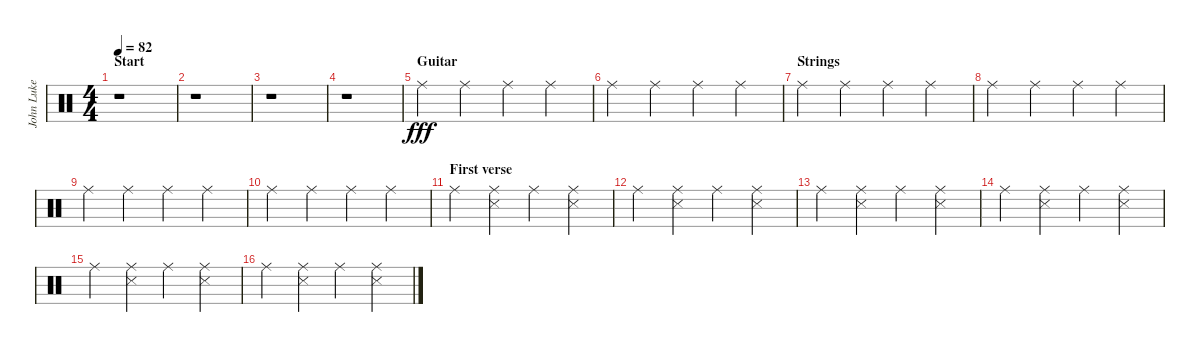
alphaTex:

\track ("John Luke (Drums)" "John Luke ") {instrument percussion}
\staff {score}
\articulation defaults
\ts (4 4)
\section ("" "Start")
\tempo 82
\clef neutral
\ks c
r.1{dy fff} |
r.1 |
r.1 |
r.1 |
\section ("" "Guitar")
"Ride (middle)".4 "Ride (middle)".4 "Ride (middle)".4 "Ride (middle)".4 |
"Ride (middle)".4 "Ride (middle)".4 "Ride (middle)".4 "Ride (middle)".4 |
\section ("" "Strings")
"Ride (middle)".4 "Ride (middle)".4 "Ride (middle)".4 "Ride (middle)".4 |
"Ride (middle)".4 "Ride (middle)".4 "Ride (middle)".4 "Ride (middle)".4 |
"Ride (middle)".4 "Ride (middle)".4 "Ride (middle)".4 "Ride (middle)".4 |
"Ride (middle)".4 "Ride (middle)".4 "Ride (middle)".4 "Ride (middle)".4 |
\section ("" "First verse")
"Ride (middle)".4 ("Ride (middle)" "Snare (side stick) 3").4 "Ride (middle)".4 ("Ride (middle)" "Snare (side stick) 3").4 |
"Ride (middle)".4 ("Ride (middle)" "Snare (side stick) 3").4 "Ride (middle)".4 ("Ride (middle)" "Snare (side stick) 3").4 |
"Ride (middle)".4 ("Ride (middle)" "Snare (side stick) 3").4 "Ride (middle)".4 ("Ride (middle)" "Snare (side stick) 3").4 |
"Ride (middle)".4 ("Ride (middle)" "Snare (side stick) 3").4 "Ride (middle)".4 ("Ride (middle)" "Snare (side stick) 3").4 |
"Ride (middle)".4 ("Ride (middle)" "Snare (side stick) 3").4 "Ride (middle)".4 ("Ride (middle)" "Snare (side stick) 3").4 |
"Ride (middle)".4 ("Ride (middle)" "Snare (side stick) 3").4 "Ride (middle)".4 ("Ride (middle)" "Snare (side stick) 3").4
